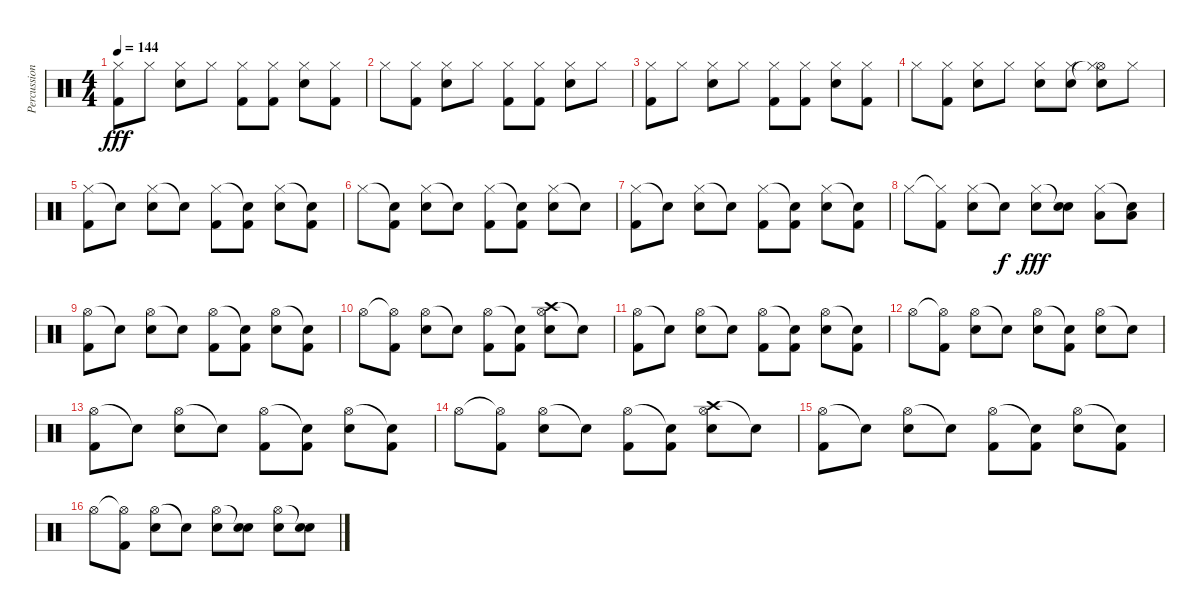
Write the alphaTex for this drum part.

\track ("Percussion" "Percussion") {instrument percussion}
\staff {score}
\articulation defaults
\ts (4 4)
\tempo 144
\clef neutral
\ks c
("Hi-Hat (closed)" "Kick (hit) 2").8{dy fff} "Hi-Hat (closed)".8 ("Hi-Hat (closed)" "Electric Snare (hit)").8 "Hi-Hat (closed)".8 ("Hi-Hat (closed)" "Kick (hit) 2").8 ("Hi-Hat (closed)" "Kick (hit) 2").8 ("Hi-Hat (closed)" "Electric Snare (hit)").8 ("Hi-Hat (closed)" "Kick (hit) 2").8 |
"Hi-Hat (closed)".8 ("Hi-Hat (closed)" "Kick (hit) 2").8 ("Hi-Hat (closed)" "Electric Snare (hit)").8 "Hi-Hat (closed)".8 ("Hi-Hat (closed)" "Kick (hit) 2").8 ("Hi-Hat (closed)" "Kick (hit) 2").8 ("Hi-Hat (closed)" "Electric Snare (hit)").8 "Hi-Hat (closed)".8 |
("Hi-Hat (closed)" "Kick (hit) 2").8 "Hi-Hat (closed)".8 ("Hi-Hat (closed)" "Electric Snare (hit)").8 "Hi-Hat (closed)".8 ("Hi-Hat (closed)" "Kick (hit) 2").8 ("Hi-Hat (closed)" "Kick (hit) 2").8 ("Hi-Hat (closed)" "Electric Snare (hit)").8 ("Hi-Hat (closed)" "Kick (hit) 2").8 |
"Hi-Hat (closed)".8 ("Hi-Hat (closed)" "Kick (hit) 2").8 ("Hi-Hat (closed)" "Electric Snare (hit)").8 "Hi-Hat (closed)".8 ("Hi-Hat (closed)" "Electric Snare (hit)").8 ("Hi-Hat (closed)" "Electric Snare (hit)").8 ("Hi-Hat (open)" "Hi-Hat (closed)"{t} "Electric Snare (hit)").8 "Hi-Hat (closed)".8 |
("Hi-Hat (closed)" "Kick (hit) 2").8 "Snare (hit)"{t}.8 ("Hi-Hat (closed)" "Electric Snare (hit)").8 "Snare (hit)"{t}.8 ("Hi-Hat (closed)" "Kick (hit) 2").8 ("Snare (hit)"{t} "Kick (hit) 2").8 ("Hi-Hat (closed)" "Electric Snare (hit)").8 ("Snare (hit)"{t} "Kick (hit) 2").8 |
"Hi-Hat (closed)".8 ("Snare (hit)"{t} "Kick (hit) 2").8 ("Hi-Hat (closed)" "Electric Snare (hit)").8 "Snare (hit)"{t}.8 ("Hi-Hat (closed)" "Kick (hit) 2").8 ("Snare (hit)"{t} "Kick (hit) 2").8 ("Hi-Hat (closed)" "Electric Snare (hit)").8 "Snare (hit)"{t}.8 |
("Hi-Hat (closed)" "Kick (hit) 2").8 "Snare (hit)"{t}.8 ("Hi-Hat (closed)" "Electric Snare (hit)").8 "Snare (hit)"{t}.8 ("Hi-Hat (closed)" "Kick (hit) 2").8 ("Snare (hit)"{t} "Kick (hit) 2").8 ("Hi-Hat (closed)" "Electric Snare (hit)").8 ("Snare (hit)"{t} "Kick (hit) 2").8 |
"Hi-Hat (closed)".8 ("Hi-Hat (closed)"{t} "Kick (hit) 2").8 ("Hi-Hat (closed)" "Electric Snare (hit)").8 "Snare (hit)"{t}.8{dy f} ("Hi-Hat (closed)" "Electric Snare (hit)").8{dy fff} ("Snare (hit)"{t} "Electric Snare (hit)").8 ("Hi-Hat (closed)" "Low Floor Tom (hit)").8 ("Snare (hit)"{t} "Low Floor Tom (hit)").8 |
("Hi-Hat (open)" "Kick (hit) 2").8 "Snare (hit)"{t}.8 ("Hi-Hat (open)" "Electric Snare (hit)").8 "Snare (hit)"{t}.8 ("Hi-Hat (open)" "Kick (hit) 2").8 ("Snare (hit)"{t} "Kick (hit) 2").8 ("Hi-Hat (open)" "Electric Snare (hit)").8 ("Snare (hit)"{t} "Kick (hit) 2").8 |
"Hi-Hat (open)".8 ("Hi-Hat (open)"{t} "Kick (hit) 2").8 ("Hi-Hat (open)" "Electric Snare (hit)").8 "Snare (hit)"{t}.8 ("Hi-Hat (open)" "Kick (hit) 2").8 ("Snare (hit)"{t} "Kick (hit) 2").8 ("Crash high (hit)" "Hi-Hat (open)" "Electric Snare (hit)").8 "Snare (hit)"{t}.8 |
("Hi-Hat (open)" "Kick (hit) 2").8 "Snare (hit)"{t}.8 ("Hi-Hat (open)" "Electric Snare (hit)").8 "Snare (hit)"{t}.8 ("Hi-Hat (open)" "Kick (hit) 2").8 ("Snare (hit)"{t} "Kick (hit) 2").8 ("Hi-Hat (open)" "Electric Snare (hit)").8 ("Snare (hit)"{t} "Kick (hit) 2").8 |
"Hi-Hat (open)".8 ("Hi-Hat (open)"{t} "Kick (hit) 2").8 ("Hi-Hat (open)" "Electric Snare (hit)").8 "Snare (hit)"{t}.8 ("Hi-Hat (open)" "Electric Snare (hit)").8 ("Snare (hit)"{t} "Kick (hit) 2").8 ("Hi-Hat (open)" "Electric Snare (hit)").8 "Snare (hit)"{t}.8 |
("Hi-Hat (open)" "Kick (hit) 2").8 "Snare (hit)"{t}.8 ("Hi-Hat (open)" "Electric Snare (hit)").8 "Snare (hit)"{t}.8 ("Hi-Hat (open)" "Kick (hit) 2").8 ("Snare (hit)"{t} "Kick (hit) 2").8 ("Hi-Hat (open)" "Electric Snare (hit)").8 ("Snare (hit)"{t} "Kick (hit) 2").8 |
"Hi-Hat (open)".8 ("Hi-Hat (open)"{t} "Kick (hit) 2").8 ("Hi-Hat (open)" "Electric Snare (hit)").8 "Snare (hit)"{t}.8 ("Hi-Hat (open)" "Kick (hit) 2").8 ("Snare (hit)"{t} "Kick (hit) 2").8 ("Crash high (hit)" "Hi-Hat (open)" "Electric Snare (hit)").8 "Snare (hit)"{t}.8 |
("Hi-Hat (open)" "Kick (hit) 2").8 "Snare (hit)"{t}.8 ("Hi-Hat (open)" "Electric Snare (hit)").8 "Snare (hit)"{t}.8 ("Hi-Hat (open)" "Kick (hit) 2").8 ("Snare (hit)"{t} "Kick (hit) 2").8 ("Hi-Hat (open)" "Electric Snare (hit)").8 ("Snare (hit)"{t} "Kick (hit) 2").8 |
"Hi-Hat (open)".8 ("Hi-Hat (open)"{t} "Kick (hit) 2").8 ("Hi-Hat (open)" "Electric Snare (hit)").8 "Snare (hit)"{t}.8 ("Hi-Hat (open)" "Electric Snare (hit)").8 ("Snare (hit)"{t} "Electric Snare (hit)").8 ("Hi-Hat (open)" "Electric Snare (hit)").8 ("Snare (hit)"{t} "Electric Snare (hit)").8
